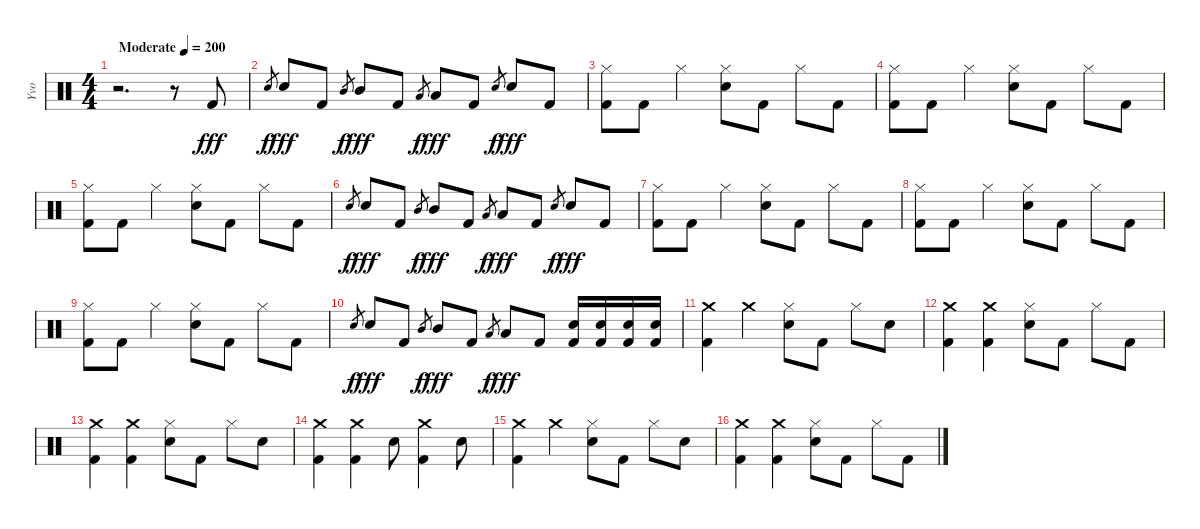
\track ("Yvo" "Yvo") {instrument percussion}
\staff {score}
\articulation defaults
\ts (4 4)
\tempo (200 "Moderate")
\clef neutral
\ks c
r.2{d dy fff} r.8 "Kick (hit) 2".8 |
"Electric Snare (hit)".8{gr dy f} "Electric Snare (hit)".8{dy fff} "Kick (hit) 2".8 "Mid Tom (hit)".8{gr dy f} "Mid Tom (hit)".8{dy fff} "Kick (hit) 2".8 "Low Tom (hit)".8{gr dy f} "Low Tom (hit)".8{dy fff} "Kick (hit) 2".8 "Electric Snare (hit)".8{gr dy f} "Electric Snare (hit)".8{dy fff} "Kick (hit) 2".8 |
("Hi-Hat (closed)" "Kick (hit) 2").8 "Kick (hit) 2".8 "Hi-Hat (closed)".4 ("Hi-Hat (closed)" "Electric Snare (hit)").8 "Kick (hit) 2".8 "Hi-Hat (closed)".8 "Kick (hit) 2".8 |
("Hi-Hat (closed)" "Kick (hit) 2").8 "Kick (hit) 2".8 "Hi-Hat (closed)".4 ("Hi-Hat (closed)" "Electric Snare (hit)").8 "Kick (hit) 2".8 "Hi-Hat (closed)".8 "Kick (hit) 2".8 |
("Hi-Hat (closed)" "Kick (hit) 2").8 "Kick (hit) 2".8 "Hi-Hat (closed)".4 ("Hi-Hat (closed)" "Electric Snare (hit)").8 "Kick (hit) 2".8 "Hi-Hat (closed)".8 "Kick (hit) 2".8 |
"Electric Snare (hit)".8{gr dy f} "Electric Snare (hit)".8{dy fff} "Kick (hit) 2".8 "Mid Tom (hit)".8{gr dy f} "Mid Tom (hit)".8{dy fff} "Kick (hit) 2".8 "Low Tom (hit)".8{gr dy f} "Low Tom (hit)".8{dy fff} "Kick (hit) 2".8 "Electric Snare (hit)".8{gr dy f} "Electric Snare (hit)".8{dy fff} "Kick (hit) 2".8 |
("Hi-Hat (closed)" "Kick (hit) 2").8 "Kick (hit) 2".8 "Hi-Hat (closed)".4 ("Hi-Hat (closed)" "Electric Snare (hit)").8 "Kick (hit) 2".8 "Hi-Hat (closed)".8 "Kick (hit) 2".8 |
("Hi-Hat (closed)" "Kick (hit) 2").8 "Kick (hit) 2".8 "Hi-Hat (closed)".4 ("Hi-Hat (closed)" "Electric Snare (hit)").8 "Kick (hit) 2".8 "Hi-Hat (closed)".8 "Kick (hit) 2".8 |
("Hi-Hat (closed)" "Kick (hit) 2").8 "Kick (hit) 2".8 "Hi-Hat (closed)".4 ("Hi-Hat (closed)" "Electric Snare (hit)").8 "Kick (hit) 2".8 "Hi-Hat (closed)".8 "Kick (hit) 2".8 |
"Electric Snare (hit)".8{gr dy f} "Electric Snare (hit)".8{dy fff} "Kick (hit) 2".8 "Mid Tom (hit)".8{gr dy f} "Mid Tom (hit)".8{dy fff} "Kick (hit) 2".8 "Low Tom (hit)".8{gr dy f} "Low Tom (hit)".8{dy fff} "Kick (hit) 2".8 ("Electric Snare (hit)" "Kick (hit) 2").16 ("Electric Snare (hit)" "Kick (hit) 2").16 ("Electric Snare (hit)" "Kick (hit) 2").16 ("Electric Snare (hit)" "Kick (hit) 2").16 |
("Crash medium (hit)" "Kick (hit) 2").4 "Crash medium (hit)".4 ("Hi-Hat (closed)" "Electric Snare (hit)").8 "Kick (hit) 2".8 "Hi-Hat (closed)".8 "Electric Snare (hit)".8 |
("Crash medium (hit)" "Kick (hit) 2").4 ("Crash medium (hit)" "Kick (hit) 2").4 ("Hi-Hat (closed)" "Electric Snare (hit)").8 "Kick (hit) 2".8 "Hi-Hat (closed)".8 "Kick (hit) 2".8 |
("Crash medium (hit)" "Kick (hit) 2").4 ("Crash medium (hit)" "Kick (hit) 2").4 ("Hi-Hat (closed)" "Electric Snare (hit)").8 "Kick (hit) 2".8 "Hi-Hat (closed)".8 "Electric Snare (hit)".8 |
("Crash medium (hit)" "Kick (hit) 2").4 ("Crash medium (hit)" "Kick (hit) 2").4 "Electric Snare (hit)".8 ("Crash medium (hit)" "Kick (hit) 2").4 "Electric Snare (hit)".8 |
("Crash medium (hit)" "Kick (hit) 2").4 "Crash medium (hit)".4 ("Hi-Hat (closed)" "Electric Snare (hit)").8 "Kick (hit) 2".8 "Hi-Hat (closed)".8 "Electric Snare (hit)".8 |
("Crash medium (hit)" "Kick (hit) 2").4 ("Crash medium (hit)" "Kick (hit) 2").4 ("Hi-Hat (closed)" "Electric Snare (hit)").8 "Kick (hit) 2".8 "Hi-Hat (closed)".8 "Kick (hit) 2".8
